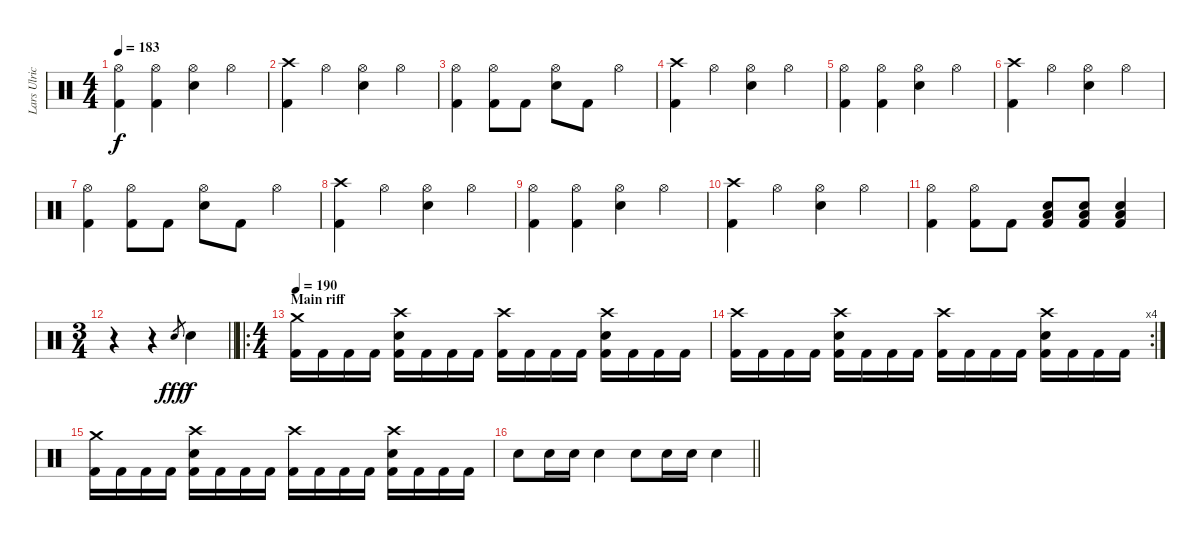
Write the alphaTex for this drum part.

\track ("Lars Ulrich" "Lars Ulric") {instrument percussion}
\staff {score}
\articulation defaults
\ts (4 4)
\tempo 183
\clef neutral
\ks c
("Hi-Hat (open)" "Kick (hit) 2").4{dy f} ("Hi-Hat (open)" "Kick (hit) 2").4 ("Hi-Hat (open)" "Snare (hit) 2").4 "Hi-Hat (open)".4 |
("Crash high (hit)" "Kick (hit) 2").4 "Hi-Hat (open)".4 ("Hi-Hat (open)" "Snare (hit) 2").4 "Hi-Hat (open)".4 |
("Hi-Hat (open)" "Kick (hit) 2").4 ("Hi-Hat (open)" "Kick (hit) 2").8 "Kick (hit) 2".8 ("Hi-Hat (open)" "Snare (hit) 2").8 "Kick (hit) 2".8 "Hi-Hat (open)".4 |
("Crash high (hit)" "Kick (hit) 2").4 "Hi-Hat (open)".4 ("Hi-Hat (open)" "Snare (hit) 2").4 "Hi-Hat (open)".4 |
("Hi-Hat (open)" "Kick (hit) 2").4 ("Hi-Hat (open)" "Kick (hit) 2").4 ("Hi-Hat (open)" "Snare (hit) 2").4 "Hi-Hat (open)".4 |
("Crash high (hit)" "Kick (hit) 2").4 "Hi-Hat (open)".4 ("Hi-Hat (open)" "Snare (hit) 2").4 "Hi-Hat (open)".4 |
("Hi-Hat (open)" "Kick (hit) 2").4 ("Hi-Hat (open)" "Kick (hit) 2").8 "Kick (hit) 2".8 ("Hi-Hat (open)" "Snare (hit) 2").8 "Kick (hit) 2".8 "Hi-Hat (open)".4 |
("Crash high (hit)" "Kick (hit) 2").4 "Hi-Hat (open)".4 ("Hi-Hat (open)" "Snare (hit) 2").4 "Hi-Hat (open)".4 |
("Hi-Hat (open)" "Kick (hit) 2").4 ("Hi-Hat (open)" "Kick (hit) 2").4 ("Hi-Hat (open)" "Snare (hit) 2").4 "Hi-Hat (open)".4 |
("Crash high (hit)" "Kick (hit) 2").4 "Hi-Hat (open)".4 ("Hi-Hat (open)" "Snare (hit) 2").4 "Hi-Hat (open)".4 |
("Hi-Hat (open)" "Kick (hit) 2").4 ("Hi-Hat (open)" "Kick (hit) 2").8 "Kick (hit) 2".8 ("Snare (hit) 2" "Low Floor Tom (hit)" "Kick (hit) 2").8 ("Snare (hit) 2" "Low Floor Tom (hit)" "Kick (hit) 2").8 ("Snare (hit) 2" "Low Floor Tom (hit)" "Kick (hit) 2").4 |
\ts (3 4)
\barLineRight lightlight
r.4 r.4 "Snare (hit) 2".8{gr dy fff} "Snare (hit) 2".4{dy f} |
\ro
\ts (4 4)
\section ("" "Main riff")
\tempo 190
("Crash medium (hit)" "Kick (hit) 2").16 "Kick (hit) 2".16 "Kick (hit) 2".16 "Kick (hit) 2".16 ("Crash high (hit)" "Snare (hit) 2" "Kick (hit) 2").16 "Kick (hit) 2".16 "Kick (hit) 2".16 "Kick (hit) 2".16 ("Crash high (hit)" "Kick (hit) 2").16 "Kick (hit) 2".16 "Kick (hit) 2".16 "Kick (hit) 2".16 ("Crash high (hit)" "Snare (hit) 2" "Kick (hit) 2").16 "Kick (hit) 2".16 "Kick (hit) 2".16 "Kick (hit) 2".16 |
\rc 4
("Crash high (hit)" "Kick (hit) 2").16 "Kick (hit) 2".16 "Kick (hit) 2".16 "Kick (hit) 2".16 ("Crash high (hit)" "Snare (hit) 2" "Kick (hit) 2").16 "Kick (hit) 2".16 "Kick (hit) 2".16 "Kick (hit) 2".16 ("Crash high (hit)" "Kick (hit) 2").16 "Kick (hit) 2".16 "Kick (hit) 2".16 "Kick (hit) 2".16 ("Crash high (hit)" "Snare (hit) 2" "Kick (hit) 2").16 "Kick (hit) 2".16 "Kick (hit) 2".16 "Kick (hit) 2".16 |
("Crash medium (hit)" "Kick (hit) 2").16 "Kick (hit) 2".16 "Kick (hit) 2".16 "Kick (hit) 2".16 ("Crash high (hit)" "Snare (hit) 2" "Kick (hit) 2").16 "Kick (hit) 2".16 "Kick (hit) 2".16 "Kick (hit) 2".16 ("Crash high (hit)" "Kick (hit) 2").16 "Kick (hit) 2".16 "Kick (hit) 2".16 "Kick (hit) 2".16 ("Crash high (hit)" "Snare (hit) 2" "Kick (hit) 2").16 "Kick (hit) 2".16 "Kick (hit) 2".16 "Kick (hit) 2".16 |
\barLineRight lightlight "Snare (hit) 2".8 "Snare (hit) 2".16 "Snare (hit) 2".16 "Snare (hit) 2".4 "Snare (hit) 2".8 "Snare (hit) 2".16 "Snare (hit) 2".16 "Snare (hit) 2".4
